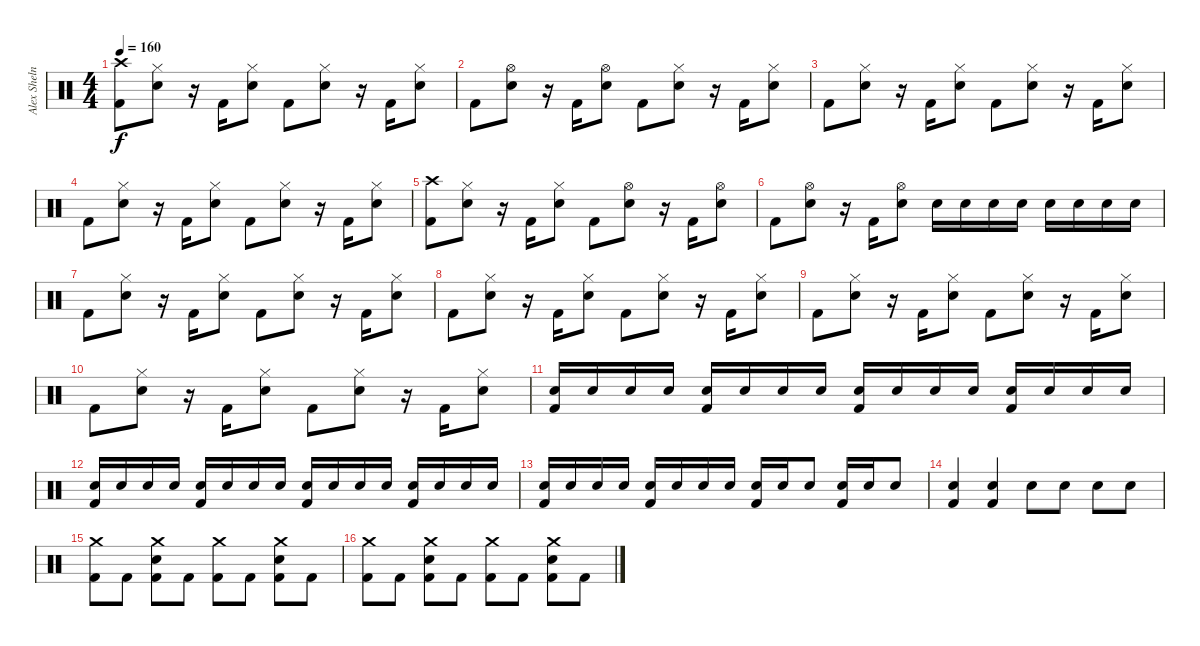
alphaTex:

\track ("Alex Shelnutt" "Alex Sheln") {instrument percussion}
\staff {score}
\articulation defaults
\ts (4 4)
\tempo 160
\clef neutral
\ks c
("Crash high (hit)" "Kick (hit) 2").8{dy f} ("Hi-Hat (closed)" "Electric Snare (hit)").8 r.16 "Kick (hit) 2".16 ("Hi-Hat (closed)" "Electric Snare (hit)").8 "Kick (hit) 2".8 ("Hi-Hat (closed)" "Electric Snare (hit)").8 r.16 "Kick (hit) 2".16 ("Hi-Hat (closed)" "Electric Snare (hit)").8 |
"Kick (hit) 2".8 ("Hi-Hat (open)" "Electric Snare (hit)").8 r.16 "Kick (hit) 2".16 ("Hi-Hat (open)" "Electric Snare (hit)").8 "Kick (hit) 2".8 ("Hi-Hat (closed)" "Electric Snare (hit)").8 r.16 "Kick (hit) 2".16 ("Hi-Hat (closed)" "Electric Snare (hit)").8 |
"Kick (hit) 2".8 ("Hi-Hat (closed)" "Electric Snare (hit)").8 r.16 "Kick (hit) 2".16 ("Hi-Hat (closed)" "Electric Snare (hit)").8 "Kick (hit) 2".8 ("Hi-Hat (closed)" "Electric Snare (hit)").8 r.16 "Kick (hit) 2".16 ("Hi-Hat (closed)" "Electric Snare (hit)").8 |
"Kick (hit) 2".8 ("Hi-Hat (closed)" "Electric Snare (hit)").8 r.16 "Kick (hit) 2".16 ("Hi-Hat (closed)" "Electric Snare (hit)").8 "Kick (hit) 2".8 ("Hi-Hat (closed)" "Electric Snare (hit)").8 r.16 "Kick (hit) 2".16 ("Hi-Hat (closed)" "Electric Snare (hit)").8 |
("Crash high (hit)" "Kick (hit) 2").8 ("Hi-Hat (closed)" "Electric Snare (hit)").8 r.16 "Kick (hit) 2".16 ("Hi-Hat (closed)" "Electric Snare (hit)").8 "Kick (hit) 2".8 ("Hi-Hat (open)" "Electric Snare (hit)").8 r.16 "Kick (hit) 2".16 ("Hi-Hat (open)" "Electric Snare (hit)").8 |
"Kick (hit) 2".8 ("Hi-Hat (open)" "Electric Snare (hit)").8 r.16 "Kick (hit) 2".16 ("Hi-Hat (open)" "Electric Snare (hit)").8 "Electric Snare (hit)".16 "Electric Snare (hit)".16 "Electric Snare (hit)".16 "Electric Snare (hit)".16 "Electric Snare (hit)".16 "Electric Snare (hit)".16 "Electric Snare (hit)".16 "Electric Snare (hit)".16 |
"Kick (hit) 2".8 ("Hi-Hat (closed)" "Electric Snare (hit)").8 r.16 "Kick (hit) 2".16 ("Hi-Hat (closed)" "Electric Snare (hit)").8 "Kick (hit) 2".8 ("Hi-Hat (closed)" "Electric Snare (hit)").8 r.16 "Kick (hit) 2".16 ("Hi-Hat (closed)" "Electric Snare (hit)").8 |
"Kick (hit) 2".8 ("Hi-Hat (closed)" "Electric Snare (hit)").8 r.16 "Kick (hit) 2".16 ("Hi-Hat (closed)" "Electric Snare (hit)").8 "Kick (hit) 2".8 ("Hi-Hat (closed)" "Electric Snare (hit)").8 r.16 "Kick (hit) 2".16 ("Hi-Hat (closed)" "Electric Snare (hit)").8 |
"Kick (hit) 2".8 ("Hi-Hat (closed)" "Electric Snare (hit)").8 r.16 "Kick (hit) 2".16 ("Hi-Hat (closed)" "Electric Snare (hit)").8 "Kick (hit) 2".8 ("Hi-Hat (closed)" "Electric Snare (hit)").8 r.16 "Kick (hit) 2".16 ("Hi-Hat (closed)" "Electric Snare (hit)").8 |
"Kick (hit) 2".8 ("Hi-Hat (closed)" "Electric Snare (hit)").8 r.16 "Kick (hit) 2".16 ("Hi-Hat (closed)" "Electric Snare (hit)").8 "Kick (hit) 2".8 ("Hi-Hat (closed)" "Electric Snare (hit)").8 r.16 "Kick (hit) 2".16 ("Hi-Hat (closed)" "Electric Snare (hit)").8 |
("Electric Snare (hit)" "Kick (hit) 2").16 "Electric Snare (hit)".16 "Electric Snare (hit)".16 "Electric Snare (hit)".16 ("Electric Snare (hit)" "Kick (hit) 2").16 "Electric Snare (hit)".16 "Electric Snare (hit)".16 "Electric Snare (hit)".16 ("Electric Snare (hit)" "Kick (hit) 2").16 "Electric Snare (hit)".16 "Electric Snare (hit)".16 "Electric Snare (hit)".16 ("Electric Snare (hit)" "Kick (hit) 2").16 "Electric Snare (hit)".16 "Electric Snare (hit)".16 "Electric Snare (hit)".16 |
("Electric Snare (hit)" "Kick (hit) 2").16 "Electric Snare (hit)".16 "Electric Snare (hit)".16 "Electric Snare (hit)".16 ("Electric Snare (hit)" "Kick (hit) 2").16 "Electric Snare (hit)".16 "Electric Snare (hit)".16 "Electric Snare (hit)".16 ("Electric Snare (hit)" "Kick (hit) 2").16 "Electric Snare (hit)".16 "Electric Snare (hit)".16 "Electric Snare (hit)".16 ("Electric Snare (hit)" "Kick (hit) 2").16 "Electric Snare (hit)".16 "Electric Snare (hit)".16 "Electric Snare (hit)".16 |
("Electric Snare (hit)" "Kick (hit) 2").16 "Electric Snare (hit)".16 "Electric Snare (hit)".16 "Electric Snare (hit)".16 ("Electric Snare (hit)" "Kick (hit) 2").16 "Electric Snare (hit)".16 "Electric Snare (hit)".16 "Electric Snare (hit)".16 ("Electric Snare (hit)" "Kick (hit) 2").16 "Electric Snare (hit)".16 "Electric Snare (hit)".8 ("Electric Snare (hit)" "Kick (hit) 2").16 "Electric Snare (hit)".16 "Electric Snare (hit)".8 |
("Electric Snare (hit)" "Kick (hit) 2").4 ("Electric Snare (hit)" "Kick (hit) 2").4 "Electric Snare (hit)".8 "Electric Snare (hit)".8 "Electric Snare (hit)".8 "Electric Snare (hit)".8 |
("Crash medium (hit)" "Kick (hit) 2").8 "Kick (hit) 2".8 ("Crash medium (hit)" "Electric Snare (hit)" "Kick (hit) 2").8 "Kick (hit) 2".8 ("Crash medium (hit)" "Kick (hit) 2").8 "Kick (hit) 2".8 ("Crash medium (hit)" "Electric Snare (hit)" "Kick (hit) 2").8 "Kick (hit) 2".8 |
("Crash medium (hit)" "Kick (hit) 2").8 "Kick (hit) 2".8 ("Crash medium (hit)" "Electric Snare (hit)" "Kick (hit) 2").8 "Kick (hit) 2".8 ("Crash medium (hit)" "Kick (hit) 2").8 "Kick (hit) 2".8 ("Crash medium (hit)" "Electric Snare (hit)" "Kick (hit) 2").8 "Kick (hit) 2".8
